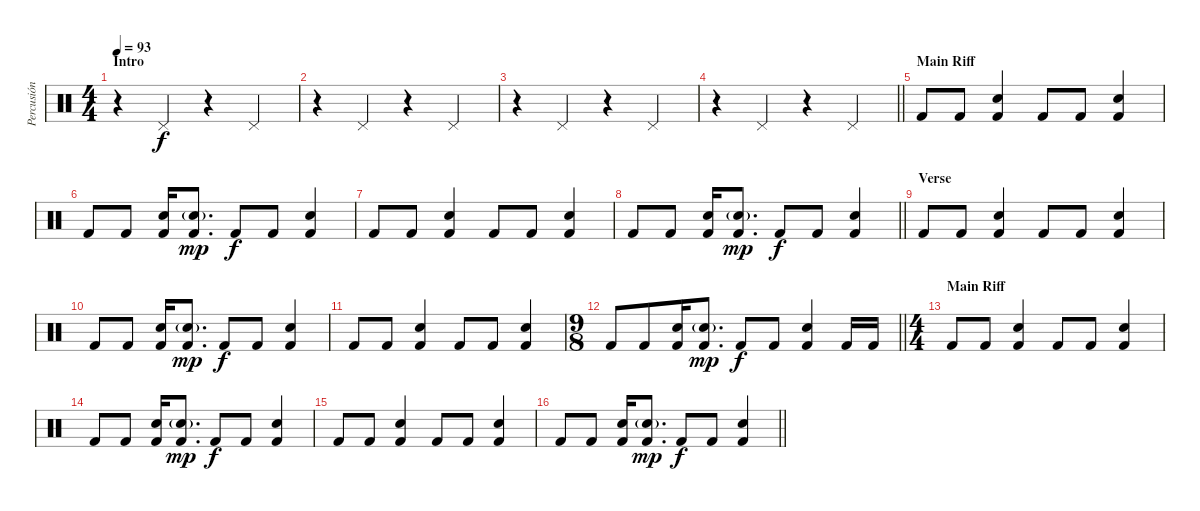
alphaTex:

\track ("Percusión" "Percusión") {instrument percussion}
\staff {score}
\articulation defaults
\ts (4 4)
\section ("" "Intro")
\tempo 93
\clef neutral
\ks c
r.4{dy f} "Pedal Hi-Hat (hit)".4 r.4 "Pedal Hi-Hat (hit)".4 |
r.4 "Pedal Hi-Hat (hit)".4 r.4 "Pedal Hi-Hat (hit)".4 |
r.4 "Pedal Hi-Hat (hit)".4 r.4 "Pedal Hi-Hat (hit)".4 |
\barLineRight lightlight
r.4 "Pedal Hi-Hat (hit)".4 r.4 "Pedal Hi-Hat (hit)".4 |
\section ("" "Main Riff")
"Kick (hit) 2".8 "Kick (hit) 2".8 ("Electric Snare (hit)" "Kick (hit) 2").4 "Kick (hit) 2".8 "Kick (hit) 2".8 ("Electric Snare (hit)" "Kick (hit) 2").4 |
"Kick (hit) 2".8 "Kick (hit) 2".8 ("Electric Snare (hit)" "Kick (hit) 2").16 ("Electric Snare (hit)"{g} "Kick (hit) 2").8{d dy mp} "Kick (hit) 2".8{dy f} "Kick (hit) 2".8 ("Electric Snare (hit)" "Kick (hit) 2").4 |
"Kick (hit) 2".8 "Kick (hit) 2".8 ("Electric Snare (hit)" "Kick (hit) 2").4 "Kick (hit) 2".8 "Kick (hit) 2".8 ("Electric Snare (hit)" "Kick (hit) 2").4 |
\barLineRight lightlight "Kick (hit) 2".8 "Kick (hit) 2".8
("Electric Snare (hit)" "Kick (hit) 2").16 ("Electric Snare (hit)"{g} "Kick (hit) 2").8{d dy mp} "Kick (hit) 2".8{dy f} "Kick (hit) 2".8 ("Electric Snare (hit)" "Kick (hit) 2").4 |
\section ("" "Verse")
"Kick (hit) 2".8 "Kick (hit) 2".8 ("Electric Snare (hit)" "Kick (hit) 2").4 "Kick (hit) 2".8 "Kick (hit) 2".8 ("Electric Snare (hit)" "Kick (hit) 2").4 |
"Kick (hit) 2".8 "Kick (hit) 2".8 ("Electric Snare (hit)" "Kick (hit) 2").16 ("Electric Snare (hit)"{g} "Kick (hit) 2").8{d dy mp} "Kick (hit) 2".8{dy f} "Kick (hit) 2".8 ("Electric Snare (hit)" "Kick (hit) 2").4 |
"Kick (hit) 2".8 "Kick (hit) 2".8 ("Electric Snare (hit)" "Kick (hit) 2").4 "Kick (hit) 2".8 "Kick (hit) 2".8 ("Electric Snare (hit)" "Kick (hit) 2").4 |
\ts (9 8)
\barLineRight lightlight "Kick (hit) 2".8 "Kick (hit) 2".8
("Electric Snare (hit)" "Kick (hit) 2").16 ("Electric Snare (hit)"{g} "Kick (hit) 2").8{d dy mp} "Kick (hit) 2".8{dy f} "Kick (hit) 2".8 ("Electric Snare (hit)" "Kick (hit) 2").4 "Kick (hit) 2".16 "Kick (hit) 2".16 |
\ts (4 4)
\section ("" "Main Riff")
"Kick (hit) 2".8 "Kick (hit) 2".8 ("Electric Snare (hit)" "Kick (hit) 2").4 "Kick (hit) 2".8 "Kick (hit) 2".8 ("Electric Snare (hit)" "Kick (hit) 2").4 |
"Kick (hit) 2".8 "Kick (hit) 2".8 ("Electric Snare (hit)" "Kick (hit) 2").16 ("Electric Snare (hit)"{g} "Kick (hit) 2").8{d dy mp} "Kick (hit) 2".8{dy f} "Kick (hit) 2".8 ("Electric Snare (hit)" "Kick (hit) 2").4 |
"Kick (hit) 2".8 "Kick (hit) 2".8 ("Electric Snare (hit)" "Kick (hit) 2").4 "Kick (hit) 2".8 "Kick (hit) 2".8 ("Electric Snare (hit)" "Kick (hit) 2").4 |
\barLineRight lightlight "Kick (hit) 2".8 "Kick (hit) 2".8
("Electric Snare (hit)" "Kick (hit) 2").16 ("Electric Snare (hit)"{g} "Kick (hit) 2").8{d dy mp} "Kick (hit) 2".8{dy f} "Kick (hit) 2".8 ("Electric Snare (hit)" "Kick (hit) 2").4
